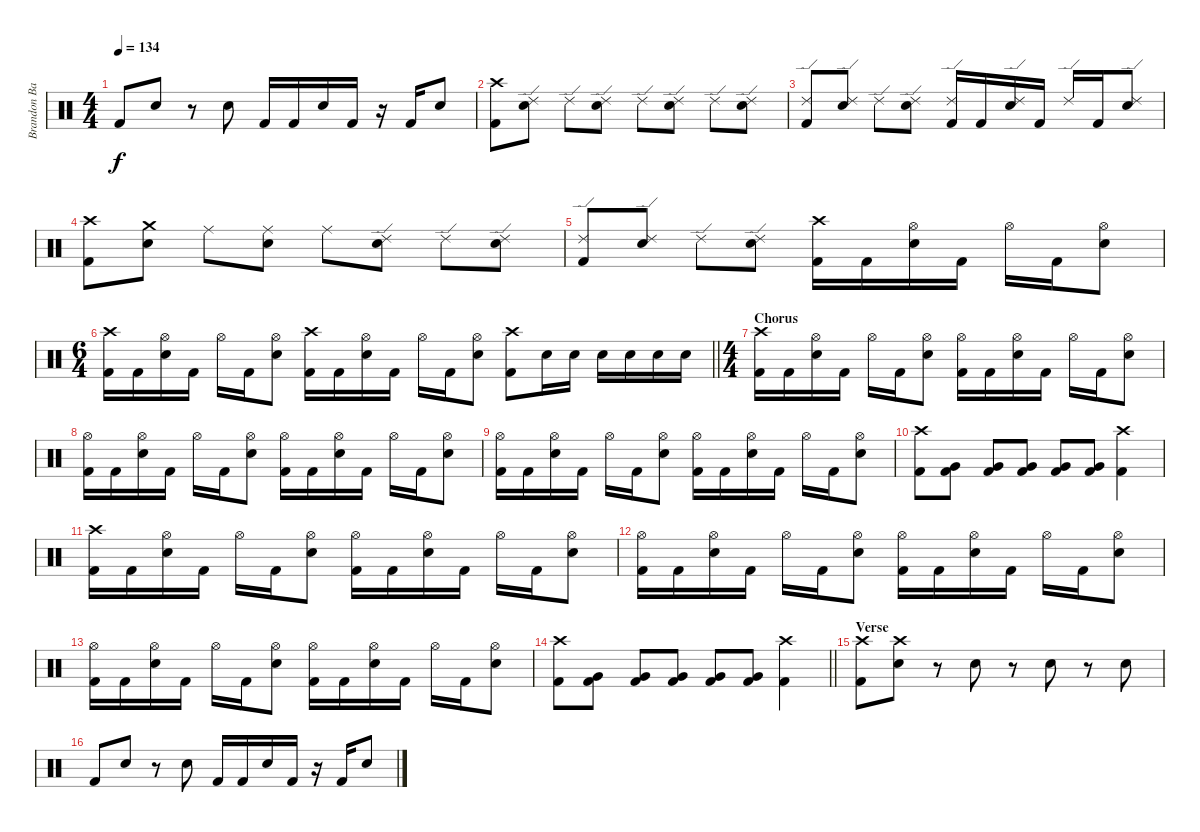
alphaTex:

\track ("Brandon Barnes - Drums" "Brandon Ba") {instrument percussion}
\staff {score}
\articulation defaults
\ts (4 4)
\tempo 134
\clef neutral
\ks c "Kick (hit) 2".8{dy f} "Snare (hit) 2".8
r.8 "Snare (hit) 2".8 "Kick (hit) 2".16 "Kick (hit) 2".16 "Snare (hit) 2".16 "Kick (hit) 2".16 r.16 "Kick (hit) 2".16 "Snare (hit) 2".8 |
("Kick (hit) 2" "Crash high (hit)").8 ("Snare (hit) 2" "Ride (edge) 2").8 "Ride (edge) 2".8 ("Snare (hit) 2" "Ride (edge) 2").8 "Ride (edge) 2".8 ("Snare (hit) 2" "Ride (edge) 2").8 "Ride (edge) 2".8 ("Snare (hit) 2" "Ride (edge) 2").8 |
("Kick (hit) 2" "Ride (edge) 2").8 ("Snare (hit) 2" "Ride (edge) 2").8 "Ride (edge) 2".8 ("Snare (hit) 2" "Ride (edge) 2").8 ("Kick (hit) 2" "Ride (edge) 2").16 "Kick (hit) 2".16 ("Snare (hit) 2" "Ride (edge) 2").16 "Kick (hit) 2".16 "Ride (edge) 2".16 "Kick (hit) 2".16 ("Snare (hit) 2" "Ride (edge) 2").8 |
("Kick (hit) 2" "Crash high (hit)").8 ("Snare (hit) 2" "Crash medium (hit)").8 "Ride (middle)".8 ("Snare (hit) 2" "Ride (middle)").8 "Ride (middle)".8 ("Snare (hit) 2" "Ride (edge) 2").8 "Ride (edge) 2".8 ("Snare (hit) 2" "Ride (edge) 2").8 |
("Kick (hit) 2" "Ride (edge) 2").8 ("Snare (hit) 2" "Ride (edge) 2").8 "Ride (edge) 2".8 ("Snare (hit) 2" "Ride (edge) 2").8 ("Kick (hit) 2" "Crash high (hit)").16 "Kick (hit) 2".16 ("Snare (hit) 2" "Hi-Hat (open)").16 "Kick (hit) 2".16 "Hi-Hat (open)".16 "Kick (hit) 2".16 ("Snare (hit) 2" "Hi-Hat (open)").8 |
\ts (6 4)
\barLineRight lightlight
("Kick (hit) 2" "Crash high (hit)").16 "Kick (hit) 2".16 ("Snare (hit) 2" "Hi-Hat (open)").16 "Kick (hit) 2".16 "Hi-Hat (open)".16 "Kick (hit) 2".16 ("Snare (hit) 2" "Hi-Hat (open)").8 ("Kick (hit) 2" "Crash high (hit)").16 "Kick (hit) 2".16 ("Snare (hit) 2" "Hi-Hat (open)").16 "Kick (hit) 2".16 "Hi-Hat (open)".16 "Kick (hit) 2".16 ("Snare (hit) 2" "Hi-Hat (open)").8 ("Kick (hit) 2" "Crash high (hit)").8 "Snare (hit) 2".16 "Snare (hit) 2".16 "Snare (hit) 2".16 "Snare (hit) 2".16 "Snare (hit) 2".16 "Snare (hit) 2".16 |
\ts (4 4)
\section ("" "Chorus")
("Crash high (hit)" "Kick (hit) 2").16 "Kick (hit) 2".16 ("Snare (hit) 2" "Hi-Hat (open)").16 "Kick (hit) 2".16 "Hi-Hat (open)".16 "Kick (hit) 2".16 ("Snare (hit) 2" "Hi-Hat (open)").8 ("Hi-Hat (open)" "Kick (hit) 2").16 "Kick (hit) 2".16 ("Snare (hit) 2" "Hi-Hat (open)").16 "Kick (hit) 2".16 "Hi-Hat (open)".16 "Kick (hit) 2".16 ("Snare (hit) 2" "Hi-Hat (open)").8 |
("Hi-Hat (open)" "Kick (hit) 2").16 "Kick (hit) 2".16 ("Snare (hit) 2" "Hi-Hat (open)").16 "Kick (hit) 2".16 "Hi-Hat (open)".16 "Kick (hit) 2".16 ("Snare (hit) 2" "Hi-Hat (open)").8 ("Hi-Hat (open)" "Kick (hit) 2").16 "Kick (hit) 2".16 ("Snare (hit) 2" "Hi-Hat (open)").16 "Kick (hit) 2".16 "Hi-Hat (open)".16 "Kick (hit) 2".16 ("Snare (hit) 2" "Hi-Hat (open)").8 |
("Hi-Hat (open)" "Kick (hit) 2").16 "Kick (hit) 2".16 ("Snare (hit) 2" "Hi-Hat (open)").16 "Kick (hit) 2".16 "Hi-Hat (open)".16 "Kick (hit) 2".16 ("Snare (hit) 2" "Hi-Hat (open)").8 ("Hi-Hat (open)" "Kick (hit) 2").16 "Kick (hit) 2".16 ("Snare (hit) 2" "Hi-Hat (open)").16 "Kick (hit) 2".16 "Hi-Hat (open)".16 "Kick (hit) 2".16 ("Snare (hit) 2" "Hi-Hat (open)").8 |
("Kick (hit) 2" "Crash high (hit)").8 ("Very Low Tom (hit)" "Kick (hit) 2").8 ("Very Low Tom (hit)" "Kick (hit) 2").8 ("Very Low Tom (hit)" "Kick (hit) 2").8 ("Very Low Tom (hit)" "Kick (hit) 2").8 ("Very Low Tom (hit)" "Kick (hit) 2").8 ("Kick (hit) 2" "Crash high (hit)").4 |
("Crash high (hit)" "Kick (hit) 2").16 "Kick (hit) 2".16 ("Snare (hit) 2" "Hi-Hat (open)").16 "Kick (hit) 2".16 "Hi-Hat (open)".16 "Kick (hit) 2".16 ("Snare (hit) 2" "Hi-Hat (open)").8 ("Hi-Hat (open)" "Kick (hit) 2").16 "Kick (hit) 2".16 ("Snare (hit) 2" "Hi-Hat (open)").16 "Kick (hit) 2".16 "Hi-Hat (open)".16 "Kick (hit) 2".16 ("Snare (hit) 2" "Hi-Hat (open)").8 |
("Hi-Hat (open)" "Kick (hit) 2").16 "Kick (hit) 2".16 ("Snare (hit) 2" "Hi-Hat (open)").16 "Kick (hit) 2".16 "Hi-Hat (open)".16 "Kick (hit) 2".16 ("Snare (hit) 2" "Hi-Hat (open)").8 ("Hi-Hat (open)" "Kick (hit) 2").16 "Kick (hit) 2".16 ("Snare (hit) 2" "Hi-Hat (open)").16 "Kick (hit) 2".16 "Hi-Hat (open)".16 "Kick (hit) 2".16 ("Snare (hit) 2" "Hi-Hat (open)").8 |
("Hi-Hat (open)" "Kick (hit) 2").16 "Kick (hit) 2".16 ("Snare (hit) 2" "Hi-Hat (open)").16 "Kick (hit) 2".16 "Hi-Hat (open)".16 "Kick (hit) 2".16 ("Snare (hit) 2" "Hi-Hat (open)").8 ("Hi-Hat (open)" "Kick (hit) 2").16 "Kick (hit) 2".16 ("Snare (hit) 2" "Hi-Hat (open)").16 "Kick (hit) 2".16 "Hi-Hat (open)".16 "Kick (hit) 2".16 ("Snare (hit) 2" "Hi-Hat (open)").8 |
\barLineRight lightlight
("Kick (hit) 2" "Crash high (hit)").8 ("Very Low Tom (hit)" "Kick (hit) 2").8 ("Very Low Tom (hit)" "Kick (hit) 2").8 ("Very Low Tom (hit)" "Kick (hit) 2").8 ("Very Low Tom (hit)" "Kick (hit) 2").8 ("Very Low Tom (hit)" "Kick (hit) 2").8 ("Kick (hit) 2" "Crash high (hit)").4 |
\section ("" "Verse")
("Kick (hit) 2" "Crash high (hit)").8 ("Snare (hit) 2" "Crash high (hit)").8 r.8 "Snare (hit) 2".8 r.8 "Snare (hit) 2".8 r.8 "Snare (hit) 2".8 |
"Kick (hit) 2".8 "Snare (hit) 2".8 r.8 "Snare (hit) 2".8 "Kick (hit) 2".16 "Kick (hit) 2".16 "Snare (hit) 2".16 "Kick (hit) 2".16 r.16 "Kick (hit) 2".16 "Snare (hit) 2".8
